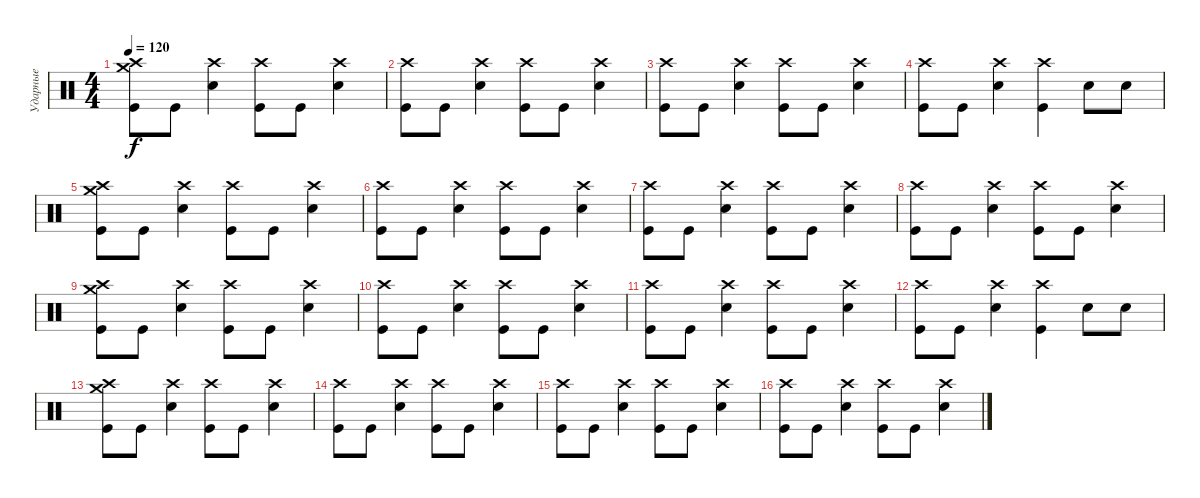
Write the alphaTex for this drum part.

\track ("Ударные" "Ударные") {instrument percussion}
\staff {score}
\articulation defaults
\ts (4 4)
\tempo 120
\clef neutral
\ks c
("Crash medium (hit)" "Crash high (hit)" "Kick (hit)").8{dy f} "Kick (hit)".8 ("Crash high (hit)" "Snare (hit) 2").4 ("Crash high (hit)" "Kick (hit)").8 "Kick (hit)".8 ("Crash high (hit)" "Snare (hit) 2").4 |
("Crash high (hit)" "Kick (hit)").8 "Kick (hit)".8 ("Crash high (hit)" "Snare (hit) 2").4 ("Crash high (hit)" "Kick (hit)").8 "Kick (hit)".8 ("Crash high (hit)" "Snare (hit) 2").4 |
("Crash high (hit)" "Kick (hit)").8 "Kick (hit)".8 ("Crash high (hit)" "Snare (hit) 2").4 ("Crash high (hit)" "Kick (hit)").8 "Kick (hit)".8 ("Crash high (hit)" "Snare (hit) 2").4 |
("Crash high (hit)" "Kick (hit)").8 "Kick (hit)".8 ("Crash high (hit)" "Snare (hit) 2").4 ("Crash high (hit)" "Kick (hit)").4 "Snare (hit) 2".8 "Snare (hit) 2".8 |
("Crash medium (hit)" "Crash high (hit)" "Kick (hit)").8 "Kick (hit)".8 ("Crash high (hit)" "Snare (hit) 2").4 ("Crash high (hit)" "Kick (hit)").8 "Kick (hit)".8 ("Crash high (hit)" "Snare (hit) 2").4 |
("Crash high (hit)" "Kick (hit)").8 "Kick (hit)".8 ("Crash high (hit)" "Snare (hit) 2").4 ("Crash high (hit)" "Kick (hit)").8 "Kick (hit)".8 ("Crash high (hit)" "Snare (hit) 2").4 |
("Crash high (hit)" "Kick (hit)").8 "Kick (hit)".8 ("Crash high (hit)" "Snare (hit) 2").4 ("Crash high (hit)" "Kick (hit)").8 "Kick (hit)".8 ("Crash high (hit)" "Snare (hit) 2").4 |
("Crash high (hit)" "Kick (hit)").8 "Kick (hit)".8 ("Crash high (hit)" "Snare (hit) 2").4 ("Crash high (hit)" "Kick (hit)").8 "Kick (hit)".8 ("Crash high (hit)" "Snare (hit) 2").4 |
("Crash medium (hit)" "Crash high (hit)" "Kick (hit)").8 "Kick (hit)".8 ("Crash high (hit)" "Snare (hit) 2").4 ("Crash high (hit)" "Kick (hit)").8 "Kick (hit)".8 ("Crash high (hit)" "Snare (hit) 2").4 |
("Crash high (hit)" "Kick (hit)").8 "Kick (hit)".8 ("Crash high (hit)" "Snare (hit) 2").4 ("Crash high (hit)" "Kick (hit)").8 "Kick (hit)".8 ("Crash high (hit)" "Snare (hit) 2").4 |
("Crash high (hit)" "Kick (hit)").8 "Kick (hit)".8 ("Crash high (hit)" "Snare (hit) 2").4 ("Crash high (hit)" "Kick (hit)").8 "Kick (hit)".8 ("Crash high (hit)" "Snare (hit) 2").4 |
("Crash high (hit)" "Kick (hit)").8 "Kick (hit)".8 ("Crash high (hit)" "Snare (hit) 2").4 ("Crash high (hit)" "Kick (hit)").4 "Snare (hit) 2".8 "Snare (hit) 2".8 |
("Crash medium (hit)" "Crash high (hit)" "Kick (hit)").8 "Kick (hit)".8 ("Crash high (hit)" "Snare (hit) 2").4 ("Crash high (hit)" "Kick (hit)").8 "Kick (hit)".8 ("Crash high (hit)" "Snare (hit) 2").4 |
("Crash high (hit)" "Kick (hit)").8 "Kick (hit)".8 ("Crash high (hit)" "Snare (hit) 2").4 ("Crash high (hit)" "Kick (hit)").8 "Kick (hit)".8 ("Crash high (hit)" "Snare (hit) 2").4 |
("Crash high (hit)" "Kick (hit)").8 "Kick (hit)".8 ("Crash high (hit)" "Snare (hit) 2").4 ("Crash high (hit)" "Kick (hit)").8 "Kick (hit)".8 ("Crash high (hit)" "Snare (hit) 2").4 |
("Crash high (hit)" "Kick (hit)").8 "Kick (hit)".8 ("Crash high (hit)" "Snare (hit) 2").4 ("Crash high (hit)" "Kick (hit)").8 "Kick (hit)".8 ("Crash high (hit)" "Snare (hit) 2").4
